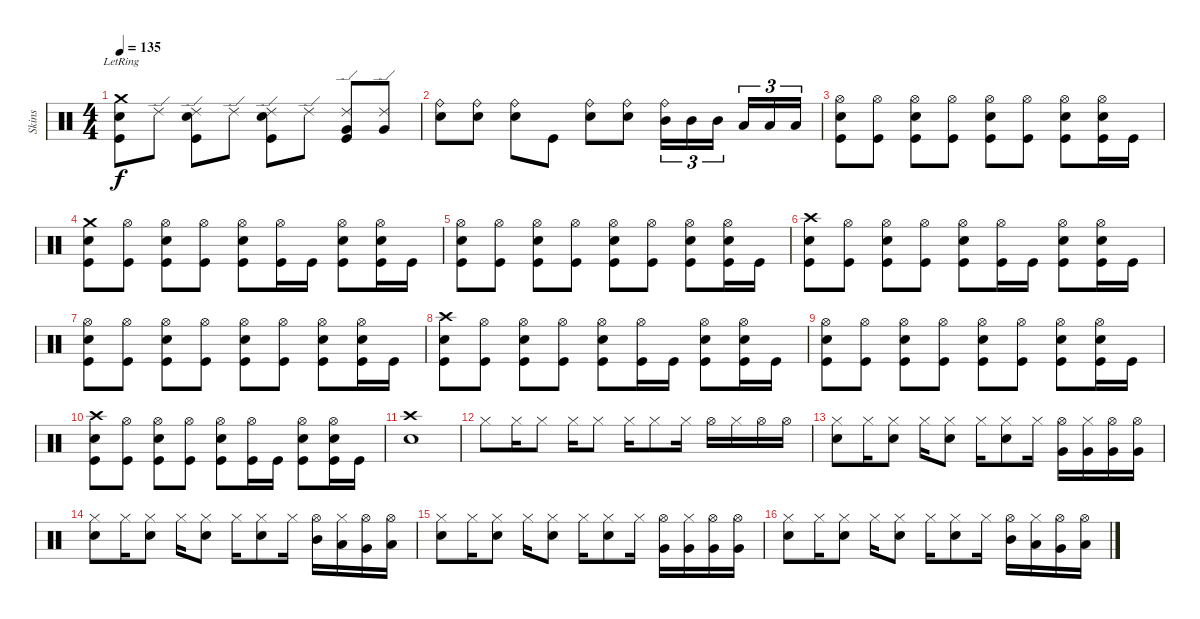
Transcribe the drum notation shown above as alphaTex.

\track ("Skins" "Skins") {instrument percussion}
\staff {score}
\articulation defaults
\ts (4 4)
\tempo 135
\clef neutral
\ks c
("Crash medium (hit)"{lr} "Electric Snare (hit)" "Kick (hit)").8{dy f} "Ride (edge) 2".8 ("Ride (edge) 2" "Electric Snare (hit)" "Kick (hit)").8 "Ride (edge) 2".8 ("Ride (edge) 2" "Electric Snare (hit)" "Kick (hit)").8 "Ride (edge) 2".8 ("Ride (edge) 2" "Very Low Tom (hit)" "Kick (hit)").8 ("Ride (edge) 2" "Very Low Tom (hit)").8 |
("Ride (bell)" "Snare (hit) 2").8 ("Ride (bell)" "Snare (hit) 2").8 ("Ride (bell)" "Snare (hit) 2").8 "Kick (hit)".8 ("Ride (bell)" "Snare (hit) 2").8 ("Ride (bell)" "Electric Snare (hit)").8 ("Ride (bell)" "Mid Tom (hit)").16{tu (3 2)} "Mid Tom (hit)".16{tu (3 2)} "Mid Tom (hit)".16{tu (3 2)} "Low Tom (hit)".16{tu (3 2)} "Low Tom (hit)".16{tu (3 2)} "Low Tom (hit)".16{tu (3 2)} |
("Hi-Hat (open)" "Snare (hit) 2" "Kick (hit)").8 ("Hi-Hat (open)" "Kick (hit)").8 ("Hi-Hat (open)" "Snare (hit) 2" "Kick (hit)").8 ("Hi-Hat (open)" "Kick (hit)").8 ("Hi-Hat (open)" "Snare (hit) 2" "Kick (hit)").8 ("Hi-Hat (open)" "Kick (hit)").8 ("Hi-Hat (open)" "Electric Snare (hit)" "Kick (hit)").8 ("Hi-Hat (open)" "Electric Snare (hit)" "Kick (hit)").16 "Kick (hit)".16 |
("Crash medium (hit)" "Snare (hit) 2" "Kick (hit)").8 ("Hi-Hat (open)" "Kick (hit)").8 ("Hi-Hat (open)" "Snare (hit) 2" "Kick (hit)").8 ("Hi-Hat (open)" "Kick (hit)").8 ("Hi-Hat (open)" "Snare (hit) 2" "Kick (hit)").8 ("Hi-Hat (open)" "Kick (hit)").16 "Kick (hit)".16 ("Hi-Hat (open)" "Electric Snare (hit)" "Kick (hit)").8 ("Hi-Hat (open)" "Electric Snare (hit)" "Kick (hit)").16 "Kick (hit)".16 |
("Hi-Hat (open)" "Snare (hit) 2" "Kick (hit)").8 ("Hi-Hat (open)" "Kick (hit)").8 ("Hi-Hat (open)" "Snare (hit) 2" "Kick (hit)").8 ("Hi-Hat (open)" "Kick (hit)").8 ("Hi-Hat (open)" "Snare (hit) 2" "Kick (hit)").8 ("Hi-Hat (open)" "Kick (hit)").8 ("Hi-Hat (open)" "Electric Snare (hit)" "Kick (hit)").8 ("Hi-Hat (open)" "Electric Snare (hit)" "Kick (hit)").16 "Kick (hit)".16 |
("Crash high (hit)" "Snare (hit) 2" "Kick (hit)").8 ("Hi-Hat (open)" "Kick (hit)").8 ("Hi-Hat (open)" "Snare (hit) 2" "Kick (hit)").8 ("Hi-Hat (open)" "Kick (hit)").8 ("Hi-Hat (open)" "Snare (hit) 2" "Kick (hit)").8 ("Hi-Hat (open)" "Kick (hit)").16 "Kick (hit)".16 ("Hi-Hat (open)" "Electric Snare (hit)" "Kick (hit)").8 ("Hi-Hat (open)" "Electric Snare (hit)" "Kick (hit)").16 "Kick (hit)".16 |
("Hi-Hat (open)" "Snare (hit) 2" "Kick (hit)").8 ("Hi-Hat (open)" "Kick (hit)").8 ("Hi-Hat (open)" "Snare (hit) 2" "Kick (hit)").8 ("Hi-Hat (open)" "Kick (hit)").8 ("Hi-Hat (open)" "Snare (hit) 2" "Kick (hit)").8 ("Hi-Hat (open)" "Kick (hit)").8 ("Hi-Hat (open)" "Electric Snare (hit)" "Kick (hit)").8 ("Hi-Hat (open)" "Electric Snare (hit)" "Kick (hit)").16 "Kick (hit)".16 |
("Crash high (hit)" "Snare (hit) 2" "Kick (hit)").8 ("Hi-Hat (open)" "Kick (hit)").8 ("Hi-Hat (open)" "Snare (hit) 2" "Kick (hit)").8 ("Hi-Hat (open)" "Kick (hit)").8 ("Hi-Hat (open)" "Snare (hit) 2" "Kick (hit)").8 ("Hi-Hat (open)" "Kick (hit)").16 "Kick (hit)".16 ("Hi-Hat (open)" "Electric Snare (hit)" "Kick (hit)").8 ("Hi-Hat (open)" "Electric Snare (hit)" "Kick (hit)").16 "Kick (hit)".16 |
("Hi-Hat (open)" "Snare (hit) 2" "Kick (hit)").8 ("Hi-Hat (open)" "Kick (hit)").8 ("Hi-Hat (open)" "Snare (hit) 2" "Kick (hit)").8 ("Hi-Hat (open)" "Kick (hit)").8 ("Hi-Hat (open)" "Snare (hit) 2" "Kick (hit)").8 ("Hi-Hat (open)" "Kick (hit)").8 ("Hi-Hat (open)" "Electric Snare (hit)" "Kick (hit)").8 ("Hi-Hat (open)" "Electric Snare (hit)" "Kick (hit)").16 "Kick (hit)".16 |
("Crash high (hit)" "Snare (hit) 2" "Kick (hit)").8 ("Hi-Hat (open)" "Kick (hit)").8 ("Hi-Hat (open)" "Snare (hit) 2" "Kick (hit)").8 ("Hi-Hat (open)" "Kick (hit)").8 ("Hi-Hat (open)" "Snare (hit) 2" "Kick (hit)").8 ("Hi-Hat (open)" "Kick (hit)").16 "Kick (hit)".16 ("Hi-Hat (open)" "Electric Snare (hit)" "Kick (hit)").8 ("Hi-Hat (open)" "Electric Snare (hit)" "Kick (hit)").16 "Kick (hit)".16 |
("Crash high (hit)" "Electric Snare (hit)").1 |
"Hi-Hat (closed)".8 "Hi-Hat (closed)".16 "Hi-Hat (closed)".8 "Hi-Hat (closed)".16 "Hi-Hat (closed)".8 "Hi-Hat (closed)".16 "Hi-Hat (closed)".8 "Hi-Hat (closed)".16 "Hi-Hat (open)".16 "Hi-Hat (closed)".16 "Hi-Hat (open)".16 "Hi-Hat (open)".16 |
("Hi-Hat (closed)" "Electric Snare (hit)").8 "Hi-Hat (closed)".16 ("Hi-Hat (closed)" "Electric Snare (hit)").8 "Hi-Hat (closed)".16 ("Hi-Hat (closed)" "Electric Snare (hit)").8 "Hi-Hat (closed)".16 ("Hi-Hat (closed)" "Electric Snare (hit)").8 "Hi-Hat (closed)".16 ("Hi-Hat (open)" "Very Low Tom (hit)").16 ("Hi-Hat (closed)" "Very Low Tom (hit)").16 ("Hi-Hat (open)" "Very Low Tom (hit)").16 ("Hi-Hat (open)" "Very Low Tom (hit)").16 |
("Hi-Hat (closed)" "Electric Snare (hit)").8 "Hi-Hat (closed)".16 ("Hi-Hat (closed)" "Electric Snare (hit)").8 "Hi-Hat (closed)".16 ("Hi-Hat (closed)" "Electric Snare (hit)").8 "Hi-Hat (closed)".16 ("Hi-Hat (closed)" "Electric Snare (hit)").8 "Hi-Hat (closed)".16 ("Hi-Hat (open)" "Mid Tom (hit)").16 ("Hi-Hat (closed)" "Low Tom (hit)").16 ("Hi-Hat (open)" "Very Low Tom (hit)").16 ("Hi-Hat (open)" "Low Floor Tom (hit)").16 |
("Hi-Hat (closed)" "Electric Snare (hit)").8 "Hi-Hat (closed)".16 ("Hi-Hat (closed)" "Electric Snare (hit)").8 "Hi-Hat (closed)".16 ("Hi-Hat (closed)" "Electric Snare (hit)").8 "Hi-Hat (closed)".16 ("Hi-Hat (closed)" "Electric Snare (hit)").8 "Hi-Hat (closed)".16 ("Hi-Hat (open)" "Very Low Tom (hit)").16 ("Hi-Hat (closed)" "Very Low Tom (hit)").16 ("Hi-Hat (open)" "Very Low Tom (hit)").16 ("Hi-Hat (open)" "Very Low Tom (hit)").16 |
("Hi-Hat (closed)" "Electric Snare (hit)").8 "Hi-Hat (closed)".16 ("Hi-Hat (closed)" "Electric Snare (hit)").8 "Hi-Hat (closed)".16 ("Hi-Hat (closed)" "Electric Snare (hit)").8 "Hi-Hat (closed)".16 ("Hi-Hat (closed)" "Electric Snare (hit)").8 "Hi-Hat (closed)".16 ("Hi-Hat (open)" "Mid Tom (hit)").16 ("Hi-Hat (closed)" "Low Tom (hit)").16 ("Hi-Hat (open)" "Very Low Tom (hit)").16 ("Hi-Hat (open)" "Low Floor Tom (hit)").16
